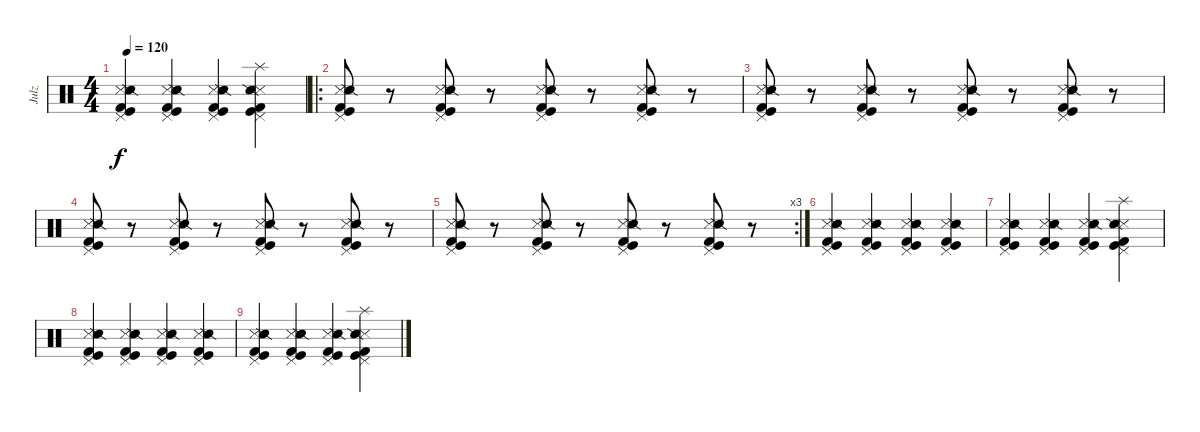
\track ("Julz" "Julz") {instrument percussion}
\staff {score}
\articulation defaults
\ts (4 4)
\tempo 120
\clef neutral
\ks c
("Metronome (hit)" "Snare (side stick) 2" "Pedal Hi-Hat (hit)" "Kick (hit)" "Kick (hit) 2").4{dy f} ("Metronome (hit)" "Snare (side stick) 2" "Pedal Hi-Hat (hit)" "Kick (hit)" "Kick (hit) 2").4 ("Metronome (hit)" "Snare (side stick) 2" "Pedal Hi-Hat (hit)" "Kick (hit)" "Kick (hit) 2").4 ("Splash (hit)" "Metronome (hit)" "Snare (side stick) 2" "Pedal Hi-Hat (hit)" "Kick (hit)" "Kick (hit) 2").4 |
\ro
("Metronome (hit)" "Snare (side stick) 2" "Pedal Hi-Hat (hit)" "Kick (hit)" "Kick (hit) 2").8 r.8 ("Metronome (hit)" "Snare (side stick) 2" "Pedal Hi-Hat (hit)" "Kick (hit)" "Kick (hit) 2").8 r.8 ("Metronome (hit)" "Snare (side stick) 2" "Pedal Hi-Hat (hit)" "Kick (hit)" "Kick (hit) 2").8 r.8 ("Metronome (hit)" "Snare (side stick) 2" "Pedal Hi-Hat (hit)" "Kick (hit)" "Kick (hit) 2").8 r.8 |
("Metronome (hit)" "Snare (side stick) 2" "Pedal Hi-Hat (hit)" "Kick (hit)" "Kick (hit) 2").8 r.8 ("Metronome (hit)" "Snare (side stick) 2" "Pedal Hi-Hat (hit)" "Kick (hit)" "Kick (hit) 2").8 r.8 ("Metronome (hit)" "Snare (side stick) 2" "Pedal Hi-Hat (hit)" "Kick (hit)" "Kick (hit) 2").8 r.8 ("Metronome (hit)" "Snare (side stick) 2" "Pedal Hi-Hat (hit)" "Kick (hit)" "Kick (hit) 2").8 r.8 |
("Metronome (hit)" "Snare (side stick) 2" "Pedal Hi-Hat (hit)" "Kick (hit)" "Kick (hit) 2").8 r.8 ("Metronome (hit)" "Snare (side stick) 2" "Pedal Hi-Hat (hit)" "Kick (hit)" "Kick (hit) 2").8 r.8 ("Metronome (hit)" "Snare (side stick) 2" "Pedal Hi-Hat (hit)" "Kick (hit)" "Kick (hit) 2").8 r.8 ("Metronome (hit)" "Snare (side stick) 2" "Pedal Hi-Hat (hit)" "Kick (hit)" "Kick (hit) 2").8 r.8 |
\rc 3
("Metronome (hit)" "Snare (side stick) 2" "Pedal Hi-Hat (hit)" "Kick (hit)" "Kick (hit) 2").8 r.8 ("Metronome (hit)" "Snare (side stick) 2" "Pedal Hi-Hat (hit)" "Kick (hit)" "Kick (hit) 2").8 r.8 ("Metronome (hit)" "Snare (side stick) 2" "Pedal Hi-Hat (hit)" "Kick (hit)" "Kick (hit) 2").8 r.8 ("Metronome (hit)" "Snare (side stick) 2" "Pedal Hi-Hat (hit)" "Kick (hit)" "Kick (hit) 2").8 r.8 |
("Metronome (hit)" "Snare (side stick) 2" "Pedal Hi-Hat (hit)" "Kick (hit)" "Kick (hit) 2").4 ("Metronome (hit)" "Snare (side stick) 2" "Pedal Hi-Hat (hit)" "Kick (hit)" "Kick (hit) 2").4 ("Metronome (hit)" "Snare (side stick) 2" "Pedal Hi-Hat (hit)" "Kick (hit)" "Kick (hit) 2").4 ("Metronome (hit)" "Snare (side stick) 2" "Pedal Hi-Hat (hit)" "Kick (hit)" "Kick (hit) 2").4 |
("Metronome (hit)" "Snare (side stick) 2" "Pedal Hi-Hat (hit)" "Kick (hit)" "Kick (hit) 2").4 ("Metronome (hit)" "Snare (side stick) 2" "Pedal Hi-Hat (hit)" "Kick (hit)" "Kick (hit) 2").4 ("Metronome (hit)" "Snare (side stick) 2" "Pedal Hi-Hat (hit)" "Kick (hit)" "Kick (hit) 2").4 ("Splash (hit)" "Metronome (hit)" "Snare (side stick) 2" "Pedal Hi-Hat (hit)" "Kick (hit)" "Kick (hit) 2").4 |
("Metronome (hit)" "Snare (side stick) 2" "Pedal Hi-Hat (hit)" "Kick (hit)" "Kick (hit) 2").4 ("Metronome (hit)" "Snare (side stick) 2" "Pedal Hi-Hat (hit)" "Kick (hit)" "Kick (hit) 2").4 ("Metronome (hit)" "Snare (side stick) 2" "Pedal Hi-Hat (hit)" "Kick (hit)" "Kick (hit) 2").4 ("Metronome (hit)" "Snare (side stick) 2" "Pedal Hi-Hat (hit)" "Kick (hit)" "Kick (hit) 2").4 |
("Metronome (hit)" "Snare (side stick) 2" "Pedal Hi-Hat (hit)" "Kick (hit)" "Kick (hit) 2").4 ("Metronome (hit)" "Snare (side stick) 2" "Pedal Hi-Hat (hit)" "Kick (hit)" "Kick (hit) 2").4 ("Metronome (hit)" "Snare (side stick) 2" "Pedal Hi-Hat (hit)" "Kick (hit)" "Kick (hit) 2").4 ("Splash (hit)" "Metronome (hit)" "Snare (side stick) 2" "Pedal Hi-Hat (hit)" "Kick (hit)" "Kick (hit) 2").4
